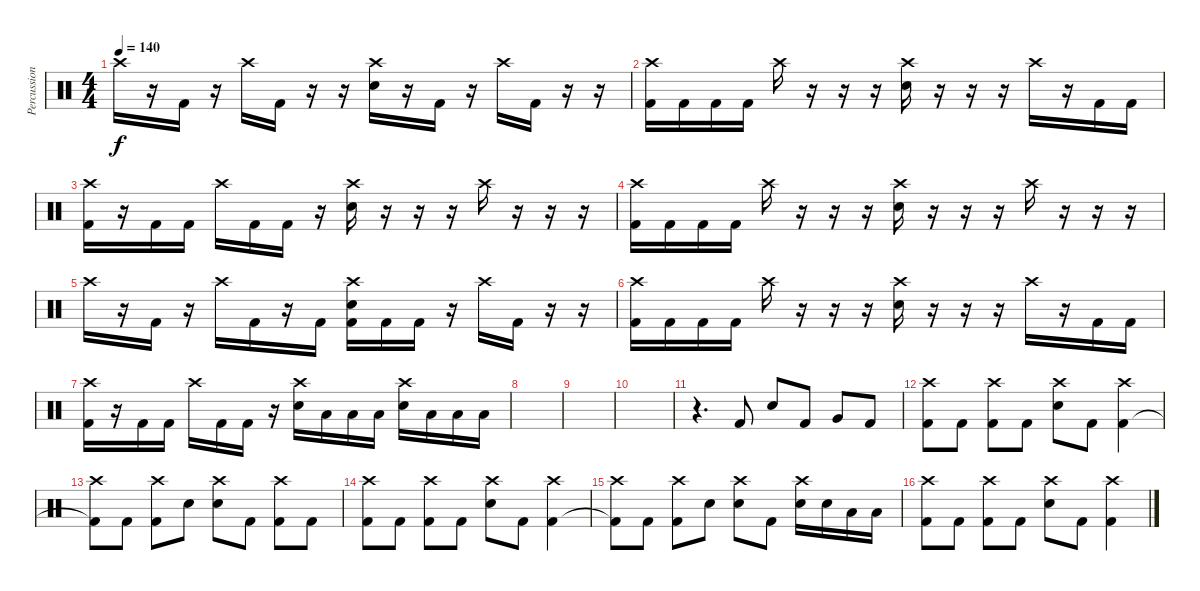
\track ("Percussions" "Percussion") {instrument percussion}
\staff {score}
\articulation defaults
\ts (4 4)
\tempo 140
\clef neutral
\ks c "Crash high (hit)".16{dy f}
r.16 "Kick (hit) 2".16 r.16 "Crash high (hit)".16 "Kick (hit) 2".16 r.16 r.16 ("Crash high (hit)" "Electric Snare (hit)").16 r.16 "Kick (hit) 2".16 r.16 "Crash high (hit)".16 "Kick (hit) 2".16 r.16 r.16 |
("Crash high (hit)" "Kick (hit) 2").16 "Kick (hit) 2".16 "Kick (hit) 2".16 "Kick (hit) 2".16 "Crash high (hit)".16 r.16 r.16 r.16 ("Crash high (hit)" "Electric Snare (hit)").16 r.16 r.16 r.16 "Crash high (hit)".16 r.16 "Kick (hit) 2".16 "Kick (hit) 2".16 |
("Crash high (hit)" "Kick (hit) 2").16 r.16 "Kick (hit) 2".16 "Kick (hit) 2".16 "Crash high (hit)".16 "Kick (hit) 2".16 "Kick (hit) 2".16 r.16 ("Crash high (hit)" "Electric Snare (hit)").16 r.16 r.16 r.16 "Crash high (hit)".16 r.16 r.16 r.16 |
("Crash high (hit)" "Kick (hit) 2").16 "Kick (hit) 2".16 "Kick (hit) 2".16 "Kick (hit) 2".16 "Crash high (hit)".16 r.16 r.16 r.16 ("Crash high (hit)" "Electric Snare (hit)").16 r.16 r.16 r.16 "Crash high (hit)".16 r.16 r.16 r.16 |
"Crash high (hit)".16 r.16 "Kick (hit) 2".16 r.16 "Crash high (hit)".16 "Kick (hit) 2".16 r.16 "Kick (hit) 2".16 ("Crash high (hit)" "Electric Snare (hit)" "Kick (hit) 2").16 "Kick (hit) 2".16 "Kick (hit) 2".16 r.16 "Crash high (hit)".16 "Kick (hit) 2".16 r.16 r.16 |
("Crash high (hit)" "Kick (hit) 2").16 "Kick (hit) 2".16 "Kick (hit) 2".16 "Kick (hit) 2".16 "Crash high (hit)".16 r.16 r.16 r.16 ("Crash high (hit)" "Electric Snare (hit)").16 r.16 r.16 r.16 "Crash high (hit)".16 r.16 "Kick (hit) 2".16 "Kick (hit) 2".16 |
("Crash high (hit)" "Kick (hit) 2").16 r.16 "Kick (hit) 2".16 "Kick (hit) 2".16 "Crash high (hit)".16 "Kick (hit) 2".16 "Kick (hit) 2".16 r.16 ("Crash high (hit)" "Electric Snare (hit)").16 "Low Tom (hit)".16 "Low Tom (hit)".16 "Low Floor Tom (hit)".16 ("Crash high (hit)" "Electric Snare (hit)").16 "Low Tom (hit)".16 "Low Tom (hit)".16 "Low Floor Tom (hit)".16 |
|
|
|
r.4{d} "Kick (hit) 2".8 "Electric Snare (hit)".8 "Kick (hit) 2".8 "Very Low Tom (hit)".8 "Kick (hit) 2".8 |
("Crash high (hit)" "Kick (hit) 2").8 "Kick (hit) 2".8 ("Crash high (hit)" "Kick (hit) 2").8 "Kick (hit) 2".8 ("Crash high (hit)" "Electric Snare (hit)").8 "Kick (hit) 2".8 ("Crash high (hit)" "Kick (hit) 2").4 |
("Crash high (hit)" "Kick (hit) 2"{t}).8 "Kick (hit) 2".8 ("Crash high (hit)" "Kick (hit) 2").8 "Electric Snare (hit)".8 ("Crash high (hit)" "Electric Snare (hit)").8 "Kick (hit) 2".8 ("Crash high (hit)" "Kick (hit) 2").8 "Kick (hit) 2".8 |
("Crash high (hit)" "Kick (hit) 2").8 "Kick (hit) 2".8 ("Crash high (hit)" "Kick (hit) 2").8 "Kick (hit) 2".8 ("Crash high (hit)" "Electric Snare (hit)").8 "Kick (hit) 2".8 ("Crash high (hit)" "Kick (hit) 2").4 |
("Crash high (hit)" "Kick (hit) 2"{t}).8 "Kick (hit) 2".8 ("Crash high (hit)" "Kick (hit) 2").8 "Electric Snare (hit)".8 ("Crash high (hit)" "Electric Snare (hit)").8 "Kick (hit) 2".8 ("Crash high (hit)" "Electric Snare (hit)").16 "Electric Snare (hit)".16 "Low Tom (hit)".16 "Low Tom (hit)".16 |
("Crash high (hit)" "Kick (hit) 2").8 "Kick (hit) 2".8 ("Crash high (hit)" "Kick (hit) 2").8 "Kick (hit) 2".8 ("Crash high (hit)" "Electric Snare (hit)").8 "Kick (hit) 2".8 ("Crash high (hit)" "Kick (hit) 2").4
